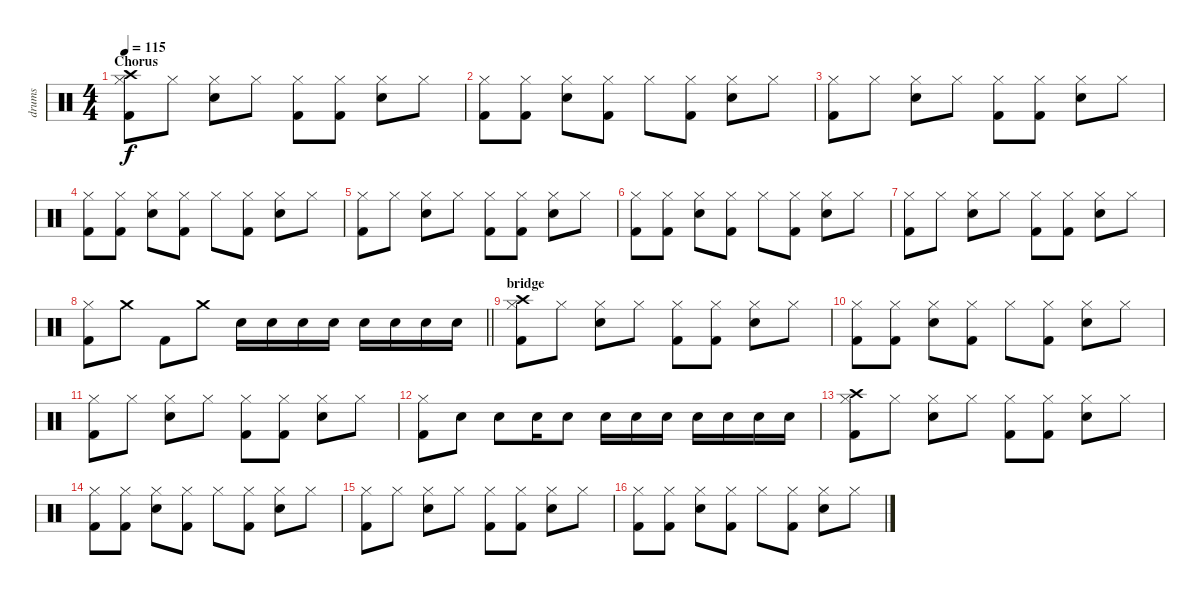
\track ("drums" "drums") {instrument percussion}
\staff {score}
\articulation defaults
\ts (4 4)
\section ("" "Chorus")
\tempo 115
\clef neutral
\ks c
("Hi-Hat (closed)" "Crash high (hit)" "Kick (hit) 2").8{dy f} "Hi-Hat (closed)".8 ("Hi-Hat (closed)" "Electric Snare (hit)").8 "Hi-Hat (closed)".8 ("Hi-Hat (closed)" "Kick (hit) 2").8 ("Hi-Hat (closed)" "Kick (hit) 2").8 ("Hi-Hat (closed)" "Electric Snare (hit)").8 "Hi-Hat (closed)".8 |
("Hi-Hat (closed)" "Kick (hit) 2").8 ("Hi-Hat (closed)" "Kick (hit) 2").8 ("Hi-Hat (closed)" "Electric Snare (hit)").8 ("Hi-Hat (closed)" "Kick (hit) 2").8 "Hi-Hat (closed)".8 ("Hi-Hat (closed)" "Kick (hit) 2").8 ("Hi-Hat (closed)" "Electric Snare (hit)").8 "Hi-Hat (closed)".8 |
("Hi-Hat (closed)" "Kick (hit) 2").8 "Hi-Hat (closed)".8 ("Hi-Hat (closed)" "Electric Snare (hit)").8 "Hi-Hat (closed)".8 ("Hi-Hat (closed)" "Kick (hit) 2").8 ("Hi-Hat (closed)" "Kick (hit) 2").8 ("Hi-Hat (closed)" "Electric Snare (hit)").8 "Hi-Hat (closed)".8 |
("Hi-Hat (closed)" "Kick (hit) 2").8 ("Hi-Hat (closed)" "Kick (hit) 2").8 ("Hi-Hat (closed)" "Electric Snare (hit)").8 ("Hi-Hat (closed)" "Kick (hit) 2").8 "Hi-Hat (closed)".8 ("Hi-Hat (closed)" "Kick (hit) 2").8 ("Hi-Hat (closed)" "Electric Snare (hit)").8 "Hi-Hat (closed)".8 |
("Hi-Hat (closed)" "Kick (hit) 2").8 "Hi-Hat (closed)".8 ("Hi-Hat (closed)" "Electric Snare (hit)").8 "Hi-Hat (closed)".8 ("Hi-Hat (closed)" "Kick (hit) 2").8 ("Hi-Hat (closed)" "Kick (hit) 2").8 ("Hi-Hat (closed)" "Electric Snare (hit)").8 "Hi-Hat (closed)".8 |
("Hi-Hat (closed)" "Kick (hit) 2").8 ("Hi-Hat (closed)" "Kick (hit) 2").8 ("Hi-Hat (closed)" "Electric Snare (hit)").8 ("Hi-Hat (closed)" "Kick (hit) 2").8 "Hi-Hat (closed)".8 ("Hi-Hat (closed)" "Kick (hit) 2").8 ("Hi-Hat (closed)" "Electric Snare (hit)").8 "Hi-Hat (closed)".8 |
("Hi-Hat (closed)" "Kick (hit) 2").8 "Hi-Hat (closed)".8 ("Hi-Hat (closed)" "Electric Snare (hit)").8 "Hi-Hat (closed)".8 ("Hi-Hat (closed)" "Kick (hit) 2").8 ("Hi-Hat (closed)" "Kick (hit) 2").8 ("Hi-Hat (closed)" "Electric Snare (hit)").8 "Hi-Hat (closed)".8 |
\barLineRight lightlight
("Hi-Hat (closed)" "Kick (hit) 2").8 "Crash medium (hit)".8 "Kick (hit) 2".8 "Crash medium (hit)".8 "Electric Snare (hit)".16 "Electric Snare (hit)".16 "Electric Snare (hit)".16 "Electric Snare (hit)".16 "Electric Snare (hit)".16 "Electric Snare (hit)".16 "Electric Snare (hit)".16 "Electric Snare (hit)".16 |
\section ("" "bridge")
("Hi-Hat (closed)" "Crash high (hit)" "Kick (hit) 2").8 "Hi-Hat (closed)".8 ("Hi-Hat (closed)" "Electric Snare (hit)").8 "Hi-Hat (closed)".8 ("Hi-Hat (closed)" "Kick (hit) 2").8 ("Hi-Hat (closed)" "Kick (hit) 2").8 ("Hi-Hat (closed)" "Electric Snare (hit)").8 "Hi-Hat (closed)".8 |
("Hi-Hat (closed)" "Kick (hit) 2").8 ("Hi-Hat (closed)" "Kick (hit) 2").8 ("Hi-Hat (closed)" "Electric Snare (hit)").8 ("Hi-Hat (closed)" "Kick (hit) 2").8 "Hi-Hat (closed)".8 ("Hi-Hat (closed)" "Kick (hit) 2").8 ("Hi-Hat (closed)" "Electric Snare (hit)").8 "Hi-Hat (closed)".8 |
("Hi-Hat (closed)" "Kick (hit) 2").8 "Hi-Hat (closed)".8 ("Hi-Hat (closed)" "Electric Snare (hit)").8 "Hi-Hat (closed)".8 ("Hi-Hat (closed)" "Kick (hit) 2").8 ("Hi-Hat (closed)" "Kick (hit) 2").8 ("Hi-Hat (closed)" "Electric Snare (hit)").8 "Hi-Hat (closed)".8 |
("Hi-Hat (closed)" "Kick (hit) 2").8 "Electric Snare (hit)".8 "Electric Snare (hit)".8 "Electric Snare (hit)".16 "Electric Snare (hit)".8 "Electric Snare (hit)".16 "Electric Snare (hit)".16 "Electric Snare (hit)".16 "Electric Snare (hit)".16 "Electric Snare (hit)".16 "Electric Snare (hit)".16 "Electric Snare (hit)".16 |
("Hi-Hat (closed)" "Crash high (hit)" "Kick (hit) 2").8 "Hi-Hat (closed)".8 ("Hi-Hat (closed)" "Electric Snare (hit)").8 "Hi-Hat (closed)".8 ("Hi-Hat (closed)" "Kick (hit) 2").8 ("Hi-Hat (closed)" "Kick (hit) 2").8 ("Hi-Hat (closed)" "Electric Snare (hit)").8 "Hi-Hat (closed)".8 |
("Hi-Hat (closed)" "Kick (hit) 2").8 ("Hi-Hat (closed)" "Kick (hit) 2").8 ("Hi-Hat (closed)" "Electric Snare (hit)").8 ("Hi-Hat (closed)" "Kick (hit) 2").8 "Hi-Hat (closed)".8 ("Hi-Hat (closed)" "Kick (hit) 2").8 ("Hi-Hat (closed)" "Electric Snare (hit)").8 "Hi-Hat (closed)".8 |
("Hi-Hat (closed)" "Kick (hit) 2").8 "Hi-Hat (closed)".8 ("Hi-Hat (closed)" "Electric Snare (hit)").8 "Hi-Hat (closed)".8 ("Hi-Hat (closed)" "Kick (hit) 2").8 ("Hi-Hat (closed)" "Kick (hit) 2").8 ("Hi-Hat (closed)" "Electric Snare (hit)").8 "Hi-Hat (closed)".8 |
("Hi-Hat (closed)" "Kick (hit) 2").8 ("Hi-Hat (closed)" "Kick (hit) 2").8 ("Hi-Hat (closed)" "Electric Snare (hit)").8 ("Hi-Hat (closed)" "Kick (hit) 2").8 "Hi-Hat (closed)".8 ("Hi-Hat (closed)" "Kick (hit) 2").8 ("Hi-Hat (closed)" "Electric Snare (hit)").8 "Hi-Hat (closed)".8
